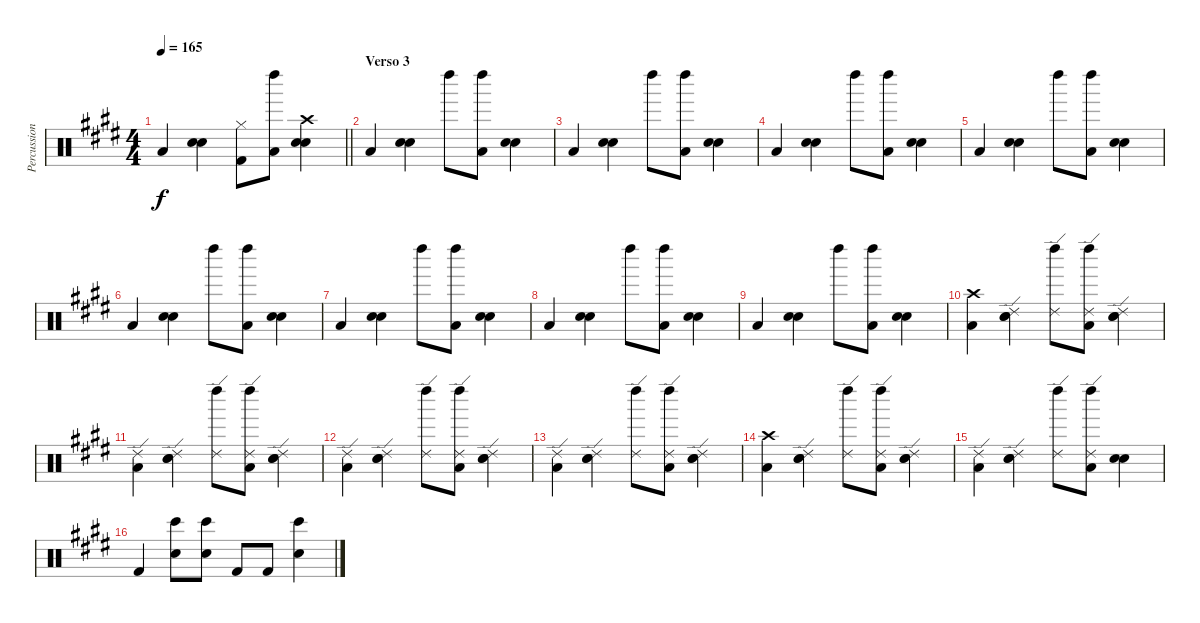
\track ("Percussioni" "Percussion") {instrument percussion}
\staff {score}
\articulation defaults
\ts (4 4)
\tempo 165
\clef neutral
\barLineRight lightlight
\ks e "Low Floor Tom (hit)".4{dy f}
("Electric Snare (hit)" "Snare (hit) 2").4 ("Kick (hit) 2" "Hi-Hat (closed)").8 ("Low Floor Tom (hit)" "Left Maraca (hit)").8 ("Electric Snare (hit)" "Snare (hit) 2" "Crash high (hit)").4 |
\section ("" "Verso 3")
"Low Floor Tom (hit)".4 ("Electric Snare (hit)" "Snare (hit) 2").4 "Left Maraca (hit)".8 ("Low Floor Tom (hit)" "Left Maraca (hit)").8 ("Electric Snare (hit)" "Snare (hit) 2").4 |
"Low Floor Tom (hit)".4 ("Electric Snare (hit)" "Snare (hit) 2").4 "Left Maraca (hit)".8 ("Low Floor Tom (hit)" "Left Maraca (hit)").8 ("Electric Snare (hit)" "Snare (hit) 2").4 |
"Low Floor Tom (hit)".4 ("Electric Snare (hit)" "Snare (hit) 2").4 "Left Maraca (hit)".8 ("Low Floor Tom (hit)" "Left Maraca (hit)").8 ("Electric Snare (hit)" "Snare (hit) 2").4 |
"Low Floor Tom (hit)".4 ("Electric Snare (hit)" "Snare (hit) 2").4 "Left Maraca (hit)".8 ("Low Floor Tom (hit)" "Left Maraca (hit)").8 ("Electric Snare (hit)" "Snare (hit) 2").4 |
"Low Floor Tom (hit)".4 ("Electric Snare (hit)" "Snare (hit) 2").4 "Left Maraca (hit)".8 ("Low Floor Tom (hit)" "Left Maraca (hit)").8 ("Electric Snare (hit)" "Snare (hit) 2").4 |
"Low Floor Tom (hit)".4 ("Electric Snare (hit)" "Snare (hit) 2").4 "Left Maraca (hit)".8 ("Low Floor Tom (hit)" "Left Maraca (hit)").8 ("Electric Snare (hit)" "Snare (hit) 2").4 |
"Low Floor Tom (hit)".4 ("Electric Snare (hit)" "Snare (hit) 2").4 "Left Maraca (hit)".8 ("Low Floor Tom (hit)" "Left Maraca (hit)").8 ("Electric Snare (hit)" "Snare (hit) 2").4 |
"Low Floor Tom (hit)".4 ("Electric Snare (hit)" "Snare (hit) 2").4 "Left Maraca (hit)".8 ("Low Floor Tom (hit)" "Left Maraca (hit)").8 ("Electric Snare (hit)" "Snare (hit) 2").4 |
("Low Floor Tom (hit)" "Crash high (hit)").4 ("Electric Snare (hit)" "Snare (hit) 2" "Ride (edge) 2").4 ("Left Maraca (hit)" "Ride (edge) 2").8 ("Low Floor Tom (hit)" "Left Maraca (hit)" "Ride (edge) 2").8 ("Electric Snare (hit)" "Snare (hit) 2" "Ride (edge) 2").4 |
("Low Floor Tom (hit)" "Ride (edge) 2").4 ("Electric Snare (hit)" "Snare (hit) 2" "Ride (edge) 2").4 ("Left Maraca (hit)" "Ride (edge) 2").8 ("Low Floor Tom (hit)" "Left Maraca (hit)" "Ride (edge) 2").8 ("Electric Snare (hit)" "Snare (hit) 2" "Ride (edge) 2").4 |
("Low Floor Tom (hit)" "Ride (edge) 2").4 ("Electric Snare (hit)" "Snare (hit) 2" "Ride (edge) 2").4 ("Left Maraca (hit)" "Ride (edge) 2").8 ("Low Floor Tom (hit)" "Left Maraca (hit)" "Ride (edge) 2").8 ("Electric Snare (hit)" "Snare (hit) 2" "Ride (edge) 2").4 |
("Low Floor Tom (hit)" "Ride (edge) 2").4 ("Electric Snare (hit)" "Snare (hit) 2" "Ride (edge) 2").4 ("Left Maraca (hit)" "Ride (edge) 2").8 ("Low Floor Tom (hit)" "Left Maraca (hit)" "Ride (edge) 2").8 ("Electric Snare (hit)" "Snare (hit) 2" "Ride (edge) 2").4 |
("Low Floor Tom (hit)" "Crash high (hit)").4 ("Electric Snare (hit)" "Snare (hit) 2" "Ride (edge) 2").4 ("Left Maraca (hit)" "Ride (edge) 2").8 ("Low Floor Tom (hit)" "Left Maraca (hit)" "Ride (edge) 2").8 ("Electric Snare (hit)" "Snare (hit) 2" "Ride (edge) 2").4 |
("Low Floor Tom (hit)" "Ride (edge) 2").4 ("Electric Snare (hit)" "Snare (hit) 2" "Ride (edge) 2").4 ("Left Maraca (hit)" "Ride (edge) 2").8 ("Low Floor Tom (hit)" "Left Maraca (hit)" "Ride (edge) 2").8 ("Electric Snare (hit)" "Snare (hit) 2").4 |
"Kick (hit) 2".4 ("Snare (hit) 2" "Bongo High (hit)").8 ("Snare (hit) 2" "Bongo High (hit)").8 "Kick (hit) 2".8 "Kick (hit) 2".8 ("Snare (hit) 2" "Bongo High (hit)").4
